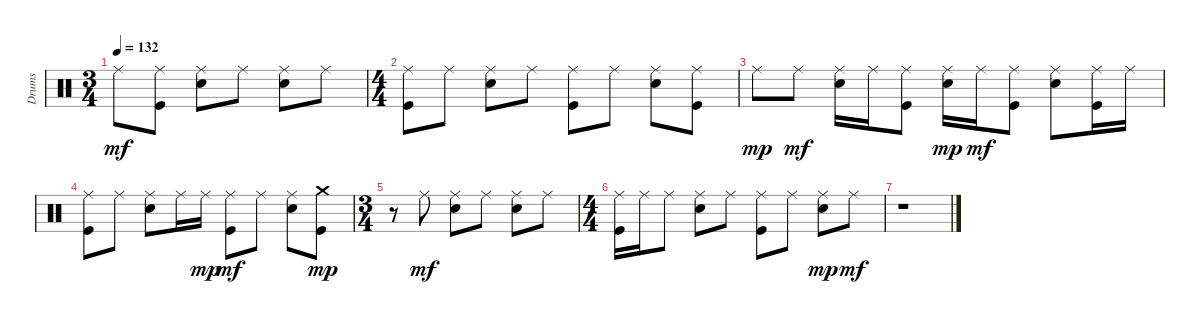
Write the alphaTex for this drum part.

\track ("Drums" "Drums") {instrument percussion}
\staff {score}
\articulation defaults
\ts (3 4)
\tempo 132
\clef neutral
\ks c "Ride (middle)".8{dy mf}
("Kick (hit)" "Ride (middle)").8 ("Electric Snare (hit)" "Ride (middle)").8 "Ride (middle)".8 ("Electric Snare (hit)" "Ride (middle)").8 "Ride (middle)".8 |
\ts (4 4)
("Kick (hit)" "Ride (middle)").8 "Ride (middle)".8 ("Electric Snare (hit)" "Ride (middle)").8 "Ride (middle)".8 ("Kick (hit)" "Ride (middle)").8 "Ride (middle)".8 ("Electric Snare (hit)" "Ride (middle)").8 ("Kick (hit)" "Ride (middle)").8 |
"Ride (middle)".8{dy mp volume 5} "Ride (middle)".8{dy mf} ("Electric Snare (hit)" "Ride (middle)").16 "Ride (middle)".16 ("Kick (hit)" "Ride (middle)").8 ("Electric Snare (hit)" "Ride (middle)").16{dy mp} "Ride (middle)".16{dy mf} ("Kick (hit)" "Ride (middle)").8 ("Electric Snare (hit)" "Ride (middle)").8 ("Kick (hit)" "Ride (middle)").16 "Ride (middle)".16 |
("Kick (hit)" "Ride (middle)").8 "Ride (middle)".8 ("Electric Snare (hit)" "Ride (middle)").8 "Ride (middle)".16 "Ride (middle)".16{dy mp} ("Kick (hit)" "Ride (middle)").8{dy mf} "Ride (middle)".8 ("Electric Snare (hit)" "Ride (middle)").8 ("Kick (hit)" "Crash medium (hit)").8{dy mp} |
\ts (3 4)
r.8 "Ride (middle)".8{dy mf} ("Electric Snare (hit)" "Ride (middle)").8 "Ride (middle)".8 ("Electric Snare (hit)" "Ride (middle)").8 "Ride (middle)".8 |
\ts (4 4)
("Kick (hit)" "Ride (middle)").16 "Ride (middle)".16 "Ride (middle)".8 ("Electric Snare (hit)" "Ride (middle)").8 "Ride (middle)".8 ("Kick (hit)" "Ride (middle)").8 "Ride (middle)".8 ("Electric Snare (hit)" "Ride (middle)").8{dy mp} "Ride (middle)".8{dy mf} |
r.1
